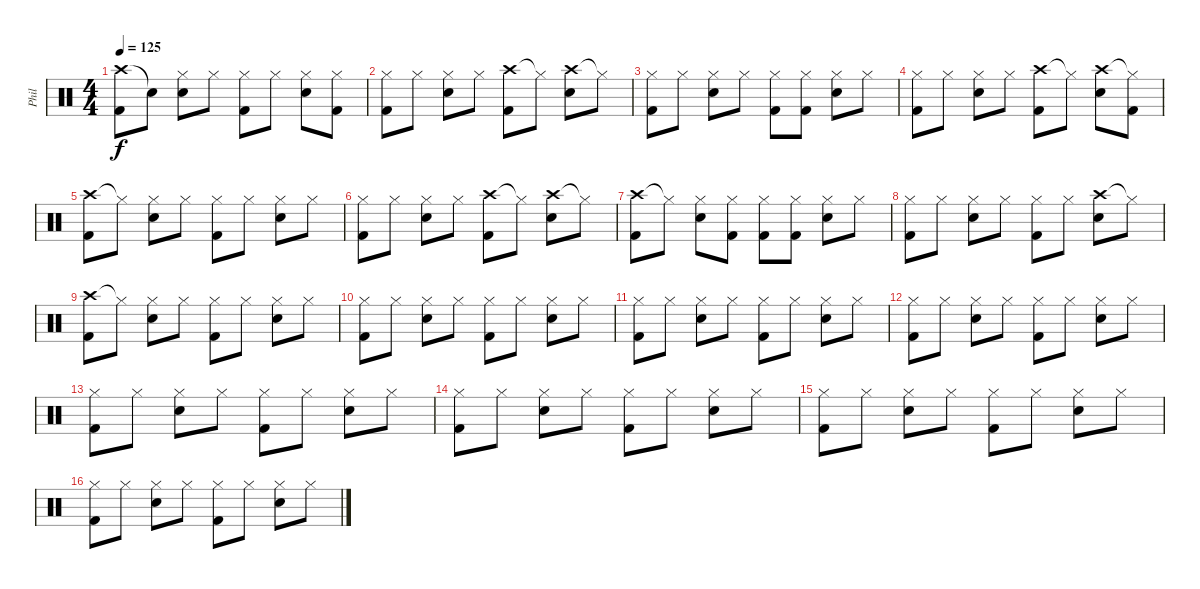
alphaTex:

\track ("Phil" "Phil") {instrument percussion}
\staff {score}
\articulation defaults
\ts (4 4)
\tempo 125
\clef neutral
\ks c
("Crash high (hit)" "Kick (hit) 2").8{dy f} "Snare (hit)"{t}.8 ("Hi-Hat (closed)" "Snare (hit) 2").8 "Hi-Hat (closed)".8 ("Hi-Hat (closed)" "Kick (hit) 2").8 "Hi-Hat (closed)".8 ("Hi-Hat (closed)" "Snare (hit) 2").8 ("Hi-Hat (closed)" "Kick (hit) 2").8 |
("Hi-Hat (closed)" "Kick (hit) 2").8 "Hi-Hat (closed)".8 ("Hi-Hat (closed)" "Snare (hit) 2").8 "Hi-Hat (closed)".8 ("Crash high (hit)" "Kick (hit) 2").8 "Hi-Hat (closed)"{t}.8 ("Crash high (hit)" "Snare (hit) 2").8 "Hi-Hat (closed)"{t}.8 |
("Hi-Hat (closed)" "Kick (hit) 2").8 "Hi-Hat (closed)".8 ("Hi-Hat (closed)" "Snare (hit) 2").8 "Hi-Hat (closed)".8 ("Hi-Hat (closed)" "Kick (hit) 2").8 ("Hi-Hat (closed)" "Kick (hit) 2").8 ("Hi-Hat (closed)" "Snare (hit) 2").8 "Hi-Hat (closed)".8 |
("Hi-Hat (closed)" "Kick (hit) 2").8 "Hi-Hat (closed)".8 ("Hi-Hat (closed)" "Snare (hit) 2").8 "Hi-Hat (closed)".8 ("Crash high (hit)" "Kick (hit) 2").8 "Hi-Hat (closed)"{t}.8 ("Crash high (hit)" "Snare (hit) 2").8 ("Hi-Hat (closed)"{t} "Kick (hit) 2").8 |
("Crash high (hit)" "Kick (hit) 2").8 "Hi-Hat (closed)"{t}.8 ("Hi-Hat (closed)" "Snare (hit) 2").8 "Hi-Hat (closed)".8 ("Hi-Hat (closed)" "Kick (hit) 2").8 "Hi-Hat (closed)".8 ("Hi-Hat (closed)" "Snare (hit) 2").8 "Hi-Hat (closed)".8 |
("Hi-Hat (closed)" "Kick (hit) 2").8 "Hi-Hat (closed)".8 ("Hi-Hat (closed)" "Snare (hit) 2").8 "Hi-Hat (closed)".8 ("Crash high (hit)" "Kick (hit) 2").8 "Hi-Hat (closed)"{t}.8 ("Crash high (hit)" "Snare (hit) 2").8 "Hi-Hat (closed)"{t}.8 |
("Crash high (hit)" "Kick (hit) 2").8 "Hi-Hat (closed)"{t}.8 ("Hi-Hat (closed)" "Snare (hit) 2").8 ("Hi-Hat (closed)" "Kick (hit) 2").8 ("Hi-Hat (closed)" "Kick (hit) 2").8 ("Hi-Hat (closed)" "Kick (hit) 2").8 ("Hi-Hat (closed)" "Snare (hit) 2").8 "Hi-Hat (closed)".8 |
("Hi-Hat (closed)" "Kick (hit) 2").8 "Hi-Hat (closed)".8 ("Hi-Hat (closed)" "Snare (hit) 2").8 "Hi-Hat (closed)".8 ("Hi-Hat (closed)" "Kick (hit) 2").8 "Hi-Hat (closed)".8 ("Crash high (hit)" "Snare (hit) 2").8 "Hi-Hat (closed)"{t}.8 |
("Crash high (hit)" "Kick (hit) 2").8 "Hi-Hat (closed)"{t}.8 ("Hi-Hat (closed)" "Snare (hit) 2").8 "Hi-Hat (closed)".8 ("Hi-Hat (closed)" "Kick (hit) 2").8 "Hi-Hat (closed)".8 ("Hi-Hat (closed)" "Snare (hit) 2").8 "Hi-Hat (closed)".8 |
("Hi-Hat (closed)" "Kick (hit) 2").8 "Hi-Hat (closed)".8 ("Hi-Hat (closed)" "Snare (hit) 2").8 "Hi-Hat (closed)".8 ("Hi-Hat (closed)" "Kick (hit) 2").8 "Hi-Hat (closed)".8 ("Hi-Hat (closed)" "Snare (hit) 2").8 "Hi-Hat (closed)".8 |
("Hi-Hat (closed)" "Kick (hit) 2").8 "Hi-Hat (closed)".8 ("Hi-Hat (closed)" "Snare (hit) 2").8 "Hi-Hat (closed)".8 ("Hi-Hat (closed)" "Kick (hit) 2").8 "Hi-Hat (closed)".8 ("Hi-Hat (closed)" "Snare (hit) 2").8 "Hi-Hat (closed)".8 |
("Hi-Hat (closed)" "Kick (hit) 2").8 "Hi-Hat (closed)".8 ("Hi-Hat (closed)" "Snare (hit) 2").8 "Hi-Hat (closed)".8 ("Hi-Hat (closed)" "Kick (hit) 2").8 "Hi-Hat (closed)".8 ("Hi-Hat (closed)" "Snare (hit) 2").8 "Hi-Hat (closed)".8 |
("Hi-Hat (closed)" "Kick (hit) 2").8 "Hi-Hat (closed)".8 ("Hi-Hat (closed)" "Snare (hit) 2").8 "Hi-Hat (closed)".8 ("Hi-Hat (closed)" "Kick (hit) 2").8 "Hi-Hat (closed)".8 ("Hi-Hat (closed)" "Snare (hit) 2").8 "Hi-Hat (closed)".8 |
("Hi-Hat (closed)" "Kick (hit) 2").8 "Hi-Hat (closed)".8 ("Hi-Hat (closed)" "Snare (hit) 2").8 "Hi-Hat (closed)".8 ("Hi-Hat (closed)" "Kick (hit) 2").8 "Hi-Hat (closed)".8 ("Hi-Hat (closed)" "Snare (hit) 2").8 "Hi-Hat (closed)".8 |
("Hi-Hat (closed)" "Kick (hit) 2").8 "Hi-Hat (closed)".8 ("Hi-Hat (closed)" "Snare (hit) 2").8 "Hi-Hat (closed)".8 ("Hi-Hat (closed)" "Kick (hit) 2").8 "Hi-Hat (closed)".8 ("Hi-Hat (closed)" "Snare (hit) 2").8 "Hi-Hat (closed)".8 |
("Hi-Hat (closed)" "Kick (hit) 2").8 "Hi-Hat (closed)".8 ("Hi-Hat (closed)" "Snare (hit) 2").8 "Hi-Hat (closed)".8 ("Hi-Hat (closed)" "Kick (hit) 2").8 "Hi-Hat (closed)".8 ("Hi-Hat (closed)" "Snare (hit) 2").8 "Hi-Hat (closed)".8
